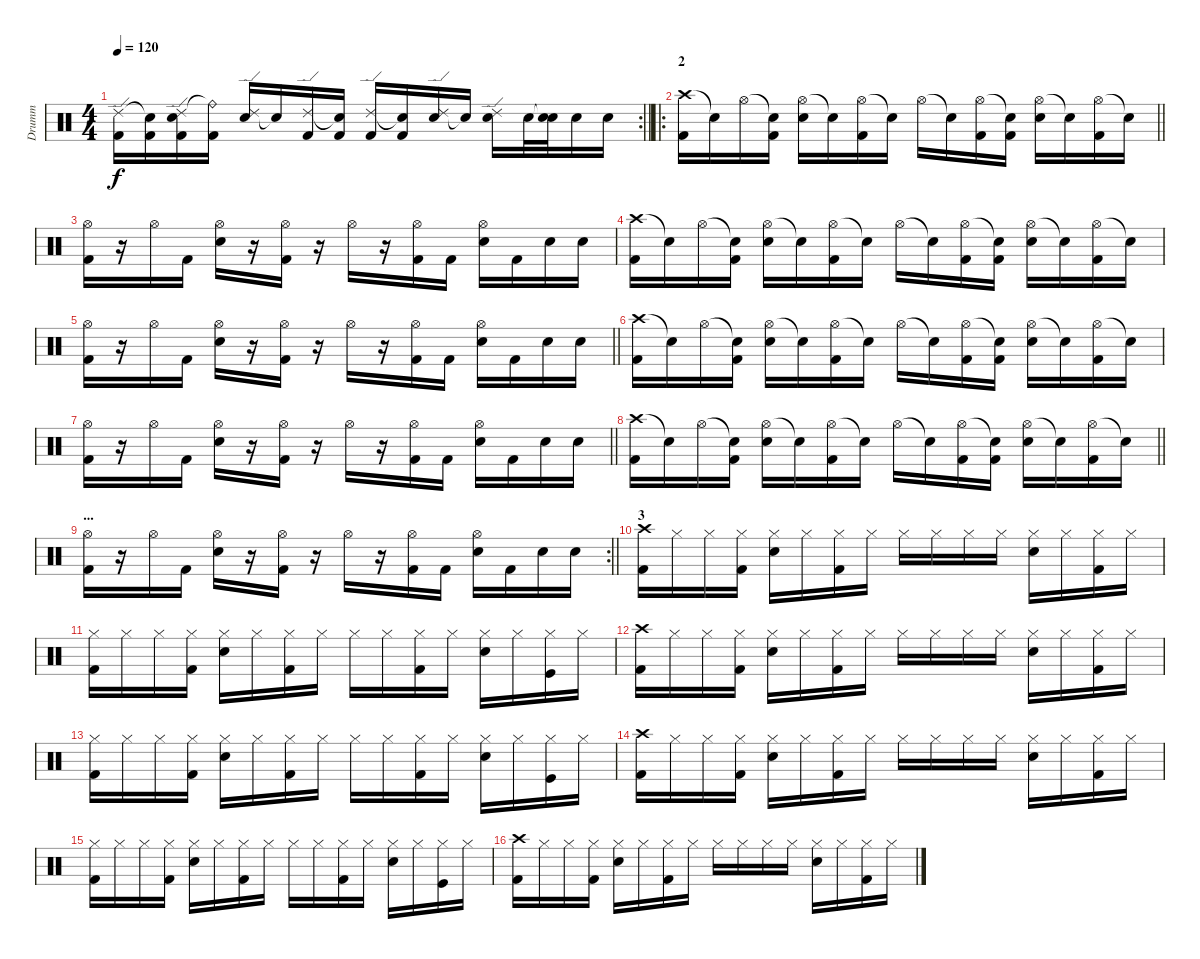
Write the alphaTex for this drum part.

\track ("Drumm" "Drumm") {instrument percussion}
\staff {score}
\articulation defaults
\rc 2
\ts (4 4)
\tempo 120
\clef neutral
\barLineRight lightlight
\ks c
("Ride (edge) 2" "Kick (hit) 2").16{dy f} ("Snare (hit)"{t} "Kick (hit) 2").16 ("Ride (edge) 2" "Electric Snare (hit)" "Kick (hit) 2").16 ("Ride (bell)"{t} "Kick (hit) 2").16 ("Ride (edge) 2" "Electric Snare (hit)").16 "Snare (hit)"{t}.16 ("Ride (edge) 2" "Kick (hit) 2").16 ("Snare (hit)"{t} "Kick (hit) 2").16 ("Ride (edge) 2" "Kick (hit) 2").16 ("Snare (hit)"{t} "Kick (hit) 2").16 ("Ride (edge) 2" "Electric Snare (hit)").16 "Snare (hit)"{t}.16 ("Ride (edge) 2" "Electric Snare (hit)").16 "Electric Snare (hit)".32 ("Snare (hit)"{t} "Electric Snare (hit)").32 "Electric Snare (hit)".16 "Electric Snare (hit)".16 |
\ro
\section ("" "2")
\barLineRight lightlight
("Crash high (hit)" "Kick (hit) 2").16 "Snare (hit)"{t}.16 "Hi-Hat (open)".16 ("Snare (hit)"{t} "Kick (hit) 2").16 ("Hi-Hat (open)" "Electric Snare (hit)").16 "Snare (hit)"{t}.16 ("Hi-Hat (open)" "Kick (hit) 2").16 "Snare (hit)"{t}.16 "Hi-Hat (open)".16 "Snare (hit)"{t}.16 ("Hi-Hat (open)" "Kick (hit) 2").16 ("Snare (hit)"{t} "Kick (hit) 2").16 ("Hi-Hat (open)" "Electric Snare (hit)").16 "Snare (hit)"{t}.16 ("Hi-Hat (open)" "Kick (hit) 2").16 "Snare (hit)"{t}.16 |
("Hi-Hat (open)" "Kick (hit) 2").16 r.16 "Hi-Hat (open)".16 "Kick (hit) 2".16 ("Hi-Hat (open)" "Electric Snare (hit)").16 r.16 ("Hi-Hat (open)" "Kick (hit) 2").16 r.16 "Hi-Hat (open)".16 r.16 ("Hi-Hat (open)" "Kick (hit) 2").16 "Kick (hit) 2".16 ("Hi-Hat (open)" "Electric Snare (hit)").16 "Kick (hit) 2".16 "Electric Snare (hit)".16 "Electric Snare (hit)".16 |
("Crash high (hit)" "Kick (hit) 2").16 "Snare (hit)"{t}.16 "Hi-Hat (open)".16 ("Snare (hit)"{t} "Kick (hit) 2").16 ("Hi-Hat (open)" "Electric Snare (hit)").16 "Snare (hit)"{t}.16 ("Hi-Hat (open)" "Kick (hit) 2").16 "Snare (hit)"{t}.16 "Hi-Hat (open)".16 "Snare (hit)"{t}.16 ("Hi-Hat (open)" "Kick (hit) 2").16 ("Snare (hit)"{t} "Kick (hit) 2").16 ("Hi-Hat (open)" "Electric Snare (hit)").16 "Snare (hit)"{t}.16 ("Hi-Hat (open)" "Kick (hit) 2").16 "Snare (hit)"{t}.16 |
\barLineRight lightlight
("Hi-Hat (open)" "Kick (hit) 2").16 r.16 "Hi-Hat (open)".16 "Kick (hit) 2".16 ("Hi-Hat (open)" "Electric Snare (hit)").16 r.16 ("Hi-Hat (open)" "Kick (hit) 2").16 r.16 "Hi-Hat (open)".16 r.16 ("Hi-Hat (open)" "Kick (hit) 2").16 "Kick (hit) 2".16 ("Hi-Hat (open)" "Electric Snare (hit)").16 "Kick (hit) 2".16 "Electric Snare (hit)".16 "Electric Snare (hit)".16 |
("Crash high (hit)" "Kick (hit) 2").16 "Snare (hit)"{t}.16 "Hi-Hat (open)".16 ("Snare (hit)"{t} "Kick (hit) 2").16 ("Hi-Hat (open)" "Electric Snare (hit)").16 "Snare (hit)"{t}.16 ("Hi-Hat (open)" "Kick (hit) 2").16 "Snare (hit)"{t}.16 "Hi-Hat (open)".16 "Snare (hit)"{t}.16 ("Hi-Hat (open)" "Kick (hit) 2").16 ("Snare (hit)"{t} "Kick (hit) 2").16 ("Hi-Hat (open)" "Electric Snare (hit)").16 "Snare (hit)"{t}.16 ("Hi-Hat (open)" "Kick (hit) 2").16 "Snare (hit)"{t}.16 |
\barLineRight lightlight
("Hi-Hat (open)" "Kick (hit) 2").16 r.16 "Hi-Hat (open)".16 "Kick (hit) 2".16 ("Hi-Hat (open)" "Electric Snare (hit)").16 r.16 ("Hi-Hat (open)" "Kick (hit) 2").16 r.16 "Hi-Hat (open)".16 r.16 ("Hi-Hat (open)" "Kick (hit) 2").16 "Kick (hit) 2".16 ("Hi-Hat (open)" "Electric Snare (hit)").16 "Kick (hit) 2".16 "Electric Snare (hit)".16 "Electric Snare (hit)".16 |
\barLineRight lightlight
("Crash high (hit)" "Kick (hit) 2").16 "Snare (hit)"{t}.16 "Hi-Hat (open)".16 ("Snare (hit)"{t} "Kick (hit) 2").16 ("Hi-Hat (open)" "Electric Snare (hit)").16 "Snare (hit)"{t}.16 ("Hi-Hat (open)" "Kick (hit) 2").16 "Snare (hit)"{t}.16 "Hi-Hat (open)".16 "Snare (hit)"{t}.16 ("Hi-Hat (open)" "Kick (hit) 2").16 ("Snare (hit)"{t} "Kick (hit) 2").16 ("Hi-Hat (open)" "Electric Snare (hit)").16 "Snare (hit)"{t}.16 ("Hi-Hat (open)" "Kick (hit) 2").16 "Snare (hit)"{t}.16 |
\rc 2
\section ("" "...")
\barLineRight lightlight
("Hi-Hat (open)" "Kick (hit) 2").16 r.16 "Hi-Hat (open)".16 "Kick (hit) 2".16 ("Hi-Hat (open)" "Electric Snare (hit)").16 r.16 ("Hi-Hat (open)" "Kick (hit) 2").16 r.16 "Hi-Hat (open)".16 r.16 ("Hi-Hat (open)" "Kick (hit) 2").16 "Kick (hit) 2".16 ("Hi-Hat (open)" "Electric Snare (hit)").16 "Kick (hit) 2".16 "Electric Snare (hit)".16 "Electric Snare (hit)".16 |
\section ("" "3")
("Crash high (hit)" "Kick (hit) 2").16 "Hi-Hat (closed)".16 "Hi-Hat (closed)".16 ("Hi-Hat (closed)" "Kick (hit) 2").16 ("Hi-Hat (closed)" "Electric Snare (hit)").16 "Hi-Hat (closed)".16 ("Hi-Hat (closed)" "Kick (hit) 2").16 "Hi-Hat (closed)".16 "Hi-Hat (closed)".16 "Hi-Hat (closed)".16 "Hi-Hat (closed)".16 "Hi-Hat (closed)".16 ("Hi-Hat (closed)" "Electric Snare (hit)").16 "Hi-Hat (closed)".16 ("Hi-Hat (closed)" "Kick (hit) 2").16 "Hi-Hat (closed)".16 |
("Hi-Hat (closed)" "Kick (hit) 2").16 "Hi-Hat (closed)".16 "Hi-Hat (closed)".16 ("Hi-Hat (closed)" "Kick (hit) 2").16 ("Hi-Hat (closed)" "Electric Snare (hit)").16 "Hi-Hat (closed)".16 ("Hi-Hat (closed)" "Kick (hit) 2").16 "Hi-Hat (closed)".16 "Hi-Hat (closed)".16 "Hi-Hat (closed)".16 ("Hi-Hat (closed)" "Kick (hit) 2").16 "Hi-Hat (closed)".16 ("Hi-Hat (closed)" "Electric Snare (hit)").16 "Hi-Hat (closed)".16 ("Hi-Hat (closed)" "Kick (hit)").16 "Hi-Hat (closed)".16 |
("Crash high (hit)" "Kick (hit) 2").16 "Hi-Hat (closed)".16 "Hi-Hat (closed)".16 ("Hi-Hat (closed)" "Kick (hit) 2").16 ("Hi-Hat (closed)" "Electric Snare (hit)").16 "Hi-Hat (closed)".16 ("Hi-Hat (closed)" "Kick (hit) 2").16 "Hi-Hat (closed)".16 "Hi-Hat (closed)".16 "Hi-Hat (closed)".16 "Hi-Hat (closed)".16 "Hi-Hat (closed)".16 ("Hi-Hat (closed)" "Electric Snare (hit)").16 "Hi-Hat (closed)".16 ("Hi-Hat (closed)" "Kick (hit) 2").16 "Hi-Hat (closed)".16 |
("Hi-Hat (closed)" "Kick (hit) 2").16 "Hi-Hat (closed)".16 "Hi-Hat (closed)".16 ("Hi-Hat (closed)" "Kick (hit) 2").16 ("Hi-Hat (closed)" "Electric Snare (hit)").16 "Hi-Hat (closed)".16 ("Hi-Hat (closed)" "Kick (hit) 2").16 "Hi-Hat (closed)".16 "Hi-Hat (closed)".16 "Hi-Hat (closed)".16 ("Hi-Hat (closed)" "Kick (hit) 2").16 "Hi-Hat (closed)".16 ("Hi-Hat (closed)" "Electric Snare (hit)").16 "Hi-Hat (closed)".16 ("Hi-Hat (closed)" "Kick (hit)").16 "Hi-Hat (closed)".16 |
("Crash high (hit)" "Kick (hit) 2").16 "Hi-Hat (closed)".16 "Hi-Hat (closed)".16 ("Hi-Hat (closed)" "Kick (hit) 2").16 ("Hi-Hat (closed)" "Electric Snare (hit)").16 "Hi-Hat (closed)".16 ("Hi-Hat (closed)" "Kick (hit) 2").16 "Hi-Hat (closed)".16 "Hi-Hat (closed)".16 "Hi-Hat (closed)".16 "Hi-Hat (closed)".16 "Hi-Hat (closed)".16 ("Hi-Hat (closed)" "Electric Snare (hit)").16 "Hi-Hat (closed)".16 ("Hi-Hat (closed)" "Kick (hit) 2").16 "Hi-Hat (closed)".16 |
("Hi-Hat (closed)" "Kick (hit) 2").16 "Hi-Hat (closed)".16 "Hi-Hat (closed)".16 ("Hi-Hat (closed)" "Kick (hit) 2").16 ("Hi-Hat (closed)" "Electric Snare (hit)").16 "Hi-Hat (closed)".16 ("Hi-Hat (closed)" "Kick (hit) 2").16 "Hi-Hat (closed)".16 "Hi-Hat (closed)".16 "Hi-Hat (closed)".16 ("Hi-Hat (closed)" "Kick (hit) 2").16 "Hi-Hat (closed)".16 ("Hi-Hat (closed)" "Electric Snare (hit)").16 "Hi-Hat (closed)".16 ("Hi-Hat (closed)" "Kick (hit)").16 "Hi-Hat (closed)".16 |
("Crash high (hit)" "Kick (hit) 2").16 "Hi-Hat (closed)".16 "Hi-Hat (closed)".16 ("Hi-Hat (closed)" "Kick (hit) 2").16 ("Hi-Hat (closed)" "Electric Snare (hit)").16 "Hi-Hat (closed)".16 ("Hi-Hat (closed)" "Kick (hit) 2").16 "Hi-Hat (closed)".16 "Hi-Hat (closed)".16 "Hi-Hat (closed)".16 "Hi-Hat (closed)".16 "Hi-Hat (closed)".16 ("Hi-Hat (closed)" "Electric Snare (hit)").16 "Hi-Hat (closed)".16 ("Hi-Hat (closed)" "Kick (hit) 2").16 "Hi-Hat (closed)".16
